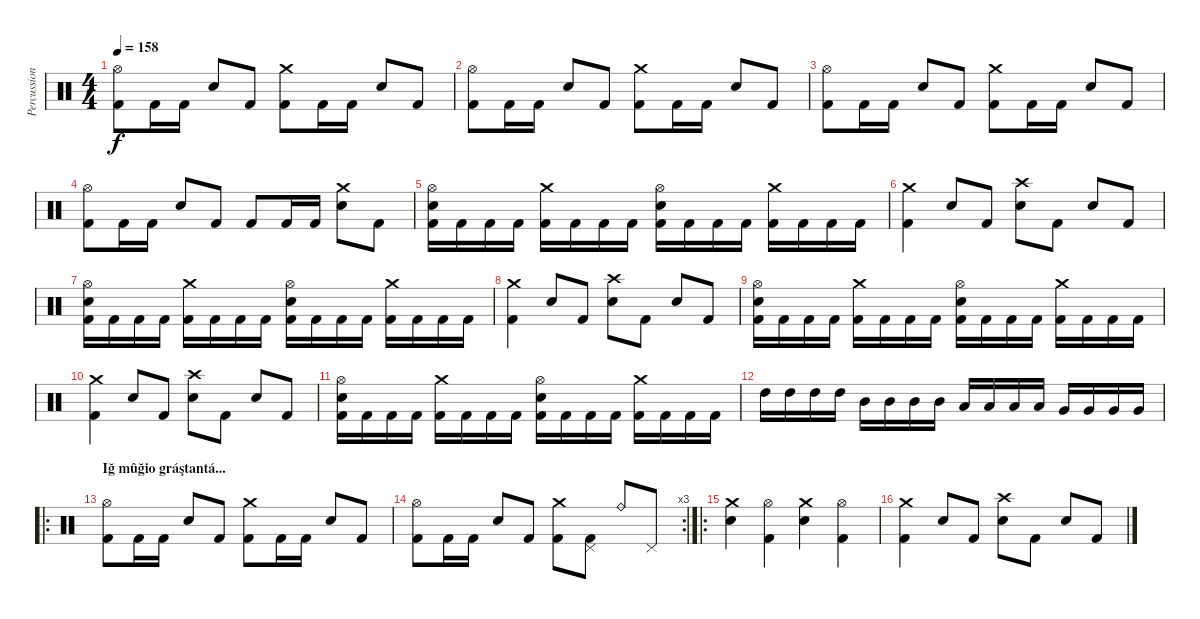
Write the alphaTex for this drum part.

\track ("Percussion" "Percussion") {instrument percussion}
\staff {score}
\articulation defaults
\ts (4 4)
\tempo 158
\clef neutral
\ks c
("Hi-Hat (open)" "Kick (hit) 2").8{dy f} "Kick (hit) 2".16 "Kick (hit) 2".16 "Snare (hit) 2".8 "Kick (hit) 2".8 ("Crash medium (hit)" "Kick (hit) 2").8 "Kick (hit) 2".16 "Kick (hit) 2".16 "Snare (hit) 2".8 "Kick (hit) 2".8 |
("Hi-Hat (open)" "Kick (hit) 2").8 "Kick (hit) 2".16 "Kick (hit) 2".16 "Snare (hit) 2".8 "Kick (hit) 2".8 ("Crash medium (hit)" "Kick (hit) 2").8 "Kick (hit) 2".16 "Kick (hit) 2".16 "Snare (hit) 2".8 "Kick (hit) 2".8 |
("Hi-Hat (open)" "Kick (hit) 2").8 "Kick (hit) 2".16 "Kick (hit) 2".16 "Snare (hit) 2".8 "Kick (hit) 2".8 ("Crash medium (hit)" "Kick (hit) 2").8 "Kick (hit) 2".16 "Kick (hit) 2".16 "Snare (hit) 2".8 "Kick (hit) 2".8 |
("Hi-Hat (open)" "Kick (hit) 2").8 "Kick (hit) 2".16 "Kick (hit) 2".16 "Snare (hit) 2".8 "Kick (hit) 2".8 "Kick (hit) 2".8 "Kick (hit) 2".16 "Kick (hit) 2".16 ("Crash medium (hit)" "Snare (hit) 2").8 "Kick (hit) 2".8 |
("Hi-Hat (open)" "Kick (hit) 2" "Snare (hit) 2").16 "Kick (hit) 2".16 "Kick (hit) 2".16 "Kick (hit) 2".16 ("Crash medium (hit)" "Kick (hit) 2").16 "Kick (hit) 2".16 "Kick (hit) 2".16 "Kick (hit) 2".16 ("Hi-Hat (open)" "Kick (hit) 2" "Snare (hit) 2").16 "Kick (hit) 2".16 "Kick (hit) 2".16 "Kick (hit) 2".16 ("Crash medium (hit)" "Kick (hit) 2").16 "Kick (hit) 2".16 "Kick (hit) 2".16 "Kick (hit) 2".16 |
("Crash medium (hit)" "Kick (hit) 2").4 "Snare (hit) 2".8 "Kick (hit) 2".8 ("Crash high (hit)" "Snare (hit) 2").8 "Kick (hit) 2".8 "Snare (hit) 2".8 "Kick (hit) 2".8 |
("Hi-Hat (open)" "Kick (hit) 2" "Snare (hit) 2").16 "Kick (hit) 2".16 "Kick (hit) 2".16 "Kick (hit) 2".16 ("Crash medium (hit)" "Kick (hit) 2").16 "Kick (hit) 2".16 "Kick (hit) 2".16 "Kick (hit) 2".16 ("Hi-Hat (open)" "Kick (hit) 2" "Snare (hit) 2").16 "Kick (hit) 2".16 "Kick (hit) 2".16 "Kick (hit) 2".16 ("Crash medium (hit)" "Kick (hit) 2").16 "Kick (hit) 2".16 "Kick (hit) 2".16 "Kick (hit) 2".16 |
("Crash medium (hit)" "Kick (hit) 2").4 "Snare (hit) 2".8 "Kick (hit) 2".8 ("Crash high (hit)" "Snare (hit) 2").8 "Kick (hit) 2".8 "Snare (hit) 2".8 "Kick (hit) 2".8 |
("Hi-Hat (open)" "Kick (hit) 2" "Snare (hit) 2").16 "Kick (hit) 2".16 "Kick (hit) 2".16 "Kick (hit) 2".16 ("Crash medium (hit)" "Kick (hit) 2").16 "Kick (hit) 2".16 "Kick (hit) 2".16 "Kick (hit) 2".16 ("Hi-Hat (open)" "Kick (hit) 2" "Snare (hit) 2").16 "Kick (hit) 2".16 "Kick (hit) 2".16 "Kick (hit) 2".16 ("Crash medium (hit)" "Kick (hit) 2").16 "Kick (hit) 2".16 "Kick (hit) 2".16 "Kick (hit) 2".16 |
("Crash medium (hit)" "Kick (hit) 2").4 "Snare (hit) 2".8 "Kick (hit) 2".8 ("Crash high (hit)" "Snare (hit) 2").8 "Kick (hit) 2".8 "Snare (hit) 2".8 "Kick (hit) 2".8 |
("Hi-Hat (open)" "Kick (hit) 2" "Snare (hit) 2").16 "Kick (hit) 2".16 "Kick (hit) 2".16 "Kick (hit) 2".16 ("Crash medium (hit)" "Kick (hit) 2").16 "Kick (hit) 2".16 "Kick (hit) 2".16 "Kick (hit) 2".16 ("Hi-Hat (open)" "Kick (hit) 2" "Snare (hit) 2").16 "Kick (hit) 2".16 "Kick (hit) 2".16 "Kick (hit) 2".16 ("Crash medium (hit)" "Kick (hit) 2").16 "Kick (hit) 2".16 "Kick (hit) 2".16 "Kick (hit) 2".16 |
"High Tom (hit)".16 "High Tom (hit)".16 "High Tom (hit)".16 "High Tom (hit)".16 "Mid Tom (hit)".16 "Mid Tom (hit)".16 "Mid Tom (hit)".16 "Mid Tom (hit)".16 "Low Tom (hit)".16 "Low Tom (hit)".16 "Low Tom (hit)".16 "Low Tom (hit)".16 "Very Low Tom (hit)".16 "Very Low Tom (hit)".16 "Very Low Tom (hit)".16 "Very Low Tom (hit)".16 |
\ro
\section ("" "Iğ mûğio gráştantá...")
("Hi-Hat (open)" "Kick (hit) 2").8 "Kick (hit) 2".16 "Kick (hit) 2".16 "Snare (hit) 2".8 "Kick (hit) 2".8 ("Crash medium (hit)" "Kick (hit) 2").8 "Kick (hit) 2".16 "Kick (hit) 2".16 "Snare (hit) 2".8 "Kick (hit) 2".8 |
\rc 3
("Hi-Hat (open)" "Kick (hit) 2").8 "Kick (hit) 2".16 "Kick (hit) 2".16 "Snare (hit) 2".8 "Kick (hit) 2".8 ("Crash medium (hit)" "Kick (hit) 2").8 ("Pedal Hi-Hat (hit)" "Kick (hit) 2").8 "Ride (bell)".8 "Pedal Hi-Hat (hit)".8 |
\ro
("Crash medium (hit)" "Snare (hit) 2").4 ("Hi-Hat (open)" "Kick (hit) 2").4 ("Crash medium (hit)" "Snare (hit) 2").4 ("Hi-Hat (open)" "Kick (hit) 2").4 |
("Crash medium (hit)" "Kick (hit) 2").4 "Snare (hit) 2".8 "Kick (hit) 2".8 ("Crash high (hit)" "Snare (hit) 2").8 "Kick (hit) 2".8 "Snare (hit) 2".8 "Kick (hit) 2".8
